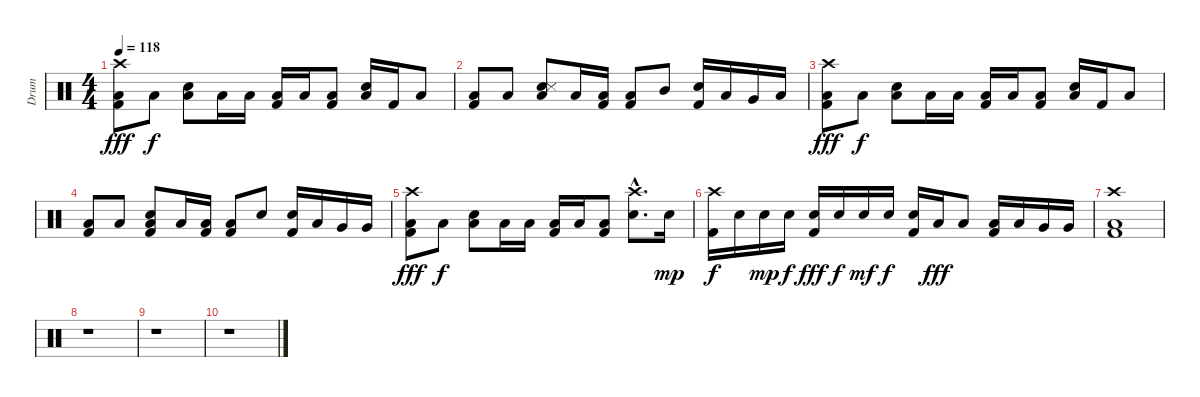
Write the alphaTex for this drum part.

\track ("Drum" "Drum") {instrument percussion}
\staff {score}
\articulation defaults
\ts (4 4)
\tempo 118
\clef neutral
\ks c
("Crash high (hit)" "Low Floor Tom (hit)" "Kick (hit) 2").8{dy fff} "Low Floor Tom (hit)".8{dy f} ("Snare (hit) 2" "Low Floor Tom (hit)").8 "Low Floor Tom (hit)".16 "Low Tom (hit)".16 ("Low Floor Tom (hit)" "Kick (hit) 2").16 "Low Tom (hit)".16 ("Low Floor Tom (hit)" "Kick (hit) 2").8 ("Snare (hit) 2" "Low Floor Tom (hit)").16 "Kick (hit) 2".16 "Low Floor Tom (hit)".8 |
("Low Floor Tom (hit)" "Kick (hit) 2").8 "Low Floor Tom (hit)".8 ("Snare (hit) 2" "Low Floor Tom (hit)" "Metronome (hit)").8 "Low Floor Tom (hit)".16 ("Low Tom (hit)" "Kick (hit) 2").16 ("Low Floor Tom (hit)" "Kick (hit) 2").8 "Mid Tom (hit)".8 ("Snare (hit) 2" "Kick (hit) 2").16 "Low Tom (hit)".16 "Very Low Tom (hit)".16 "Low Floor Tom (hit)".16 |
("Crash high (hit)" "Low Floor Tom (hit)" "Kick (hit) 2").8{dy fff} "Low Floor Tom (hit)".8{dy f} ("Snare (hit) 2" "Low Floor Tom (hit)").8 "Low Floor Tom (hit)".16 "Low Tom (hit)".16 ("Low Floor Tom (hit)" "Kick (hit) 2").16 "Low Tom (hit)".16 ("Low Floor Tom (hit)" "Kick (hit) 2").8 ("Snare (hit) 2" "Low Floor Tom (hit)").16 "Kick (hit) 2".16 "Low Floor Tom (hit)".8 |
("Low Floor Tom (hit)" "Kick (hit) 2").8 "Low Floor Tom (hit)".8 ("Snare (hit) 2" "Low Floor Tom (hit)" "Kick (hit) 2").8 "Low Floor Tom (hit)".16 ("Low Tom (hit)" "Kick (hit) 2").16 ("Low Floor Tom (hit)" "Kick (hit) 2").8 "Snare (hit) 2".8 ("Snare (hit) 2" "Kick (hit) 2").16 "Low Tom (hit)".16 "Very Low Tom (hit)".16 "Very Low Tom (hit)".16 |
("Crash high (hit)" "Low Floor Tom (hit)" "Kick (hit) 2").8{dy fff} "Low Floor Tom (hit)".8{dy f} ("Snare (hit) 2" "Low Floor Tom (hit)").8 "Low Floor Tom (hit)".16 "Low Tom (hit)".16 ("Low Floor Tom (hit)" "Kick (hit) 2").16 "Low Tom (hit)".16 ("Low Floor Tom (hit)" "Kick (hit) 2").8 ("Crash high (hit)"{hac} "Snare (hit) 2"{hac}).8{d} "Snare (hit) 2".16{dy mp} |
("Crash high (hit)" "Kick (hit) 2").16{dy f} "Snare (hit) 2".16 "Snare (hit) 2".16{dy mp} "Snare (hit) 2".16{dy f} ("Snare (hit) 2" "Kick (hit) 2").16{dy fff} "Snare (hit) 2".16{dy f} "Snare (hit) 2".16{dy mf} "Snare (hit) 2".16{dy f} ("Snare (hit) 2" "Kick (hit) 2").16 "Low Tom (hit)".16{dy fff} "Low Tom (hit)".8 ("Low Tom (hit)" "Kick (hit) 2").16 "Low Tom (hit)".16 "Very Low Tom (hit)".16 "Very Low Tom (hit)".16 |
("Crash high (hit)" "Low Floor Tom (hit)" "Kick (hit) 2").1 |
r.1 |
r.1 |
r.1
